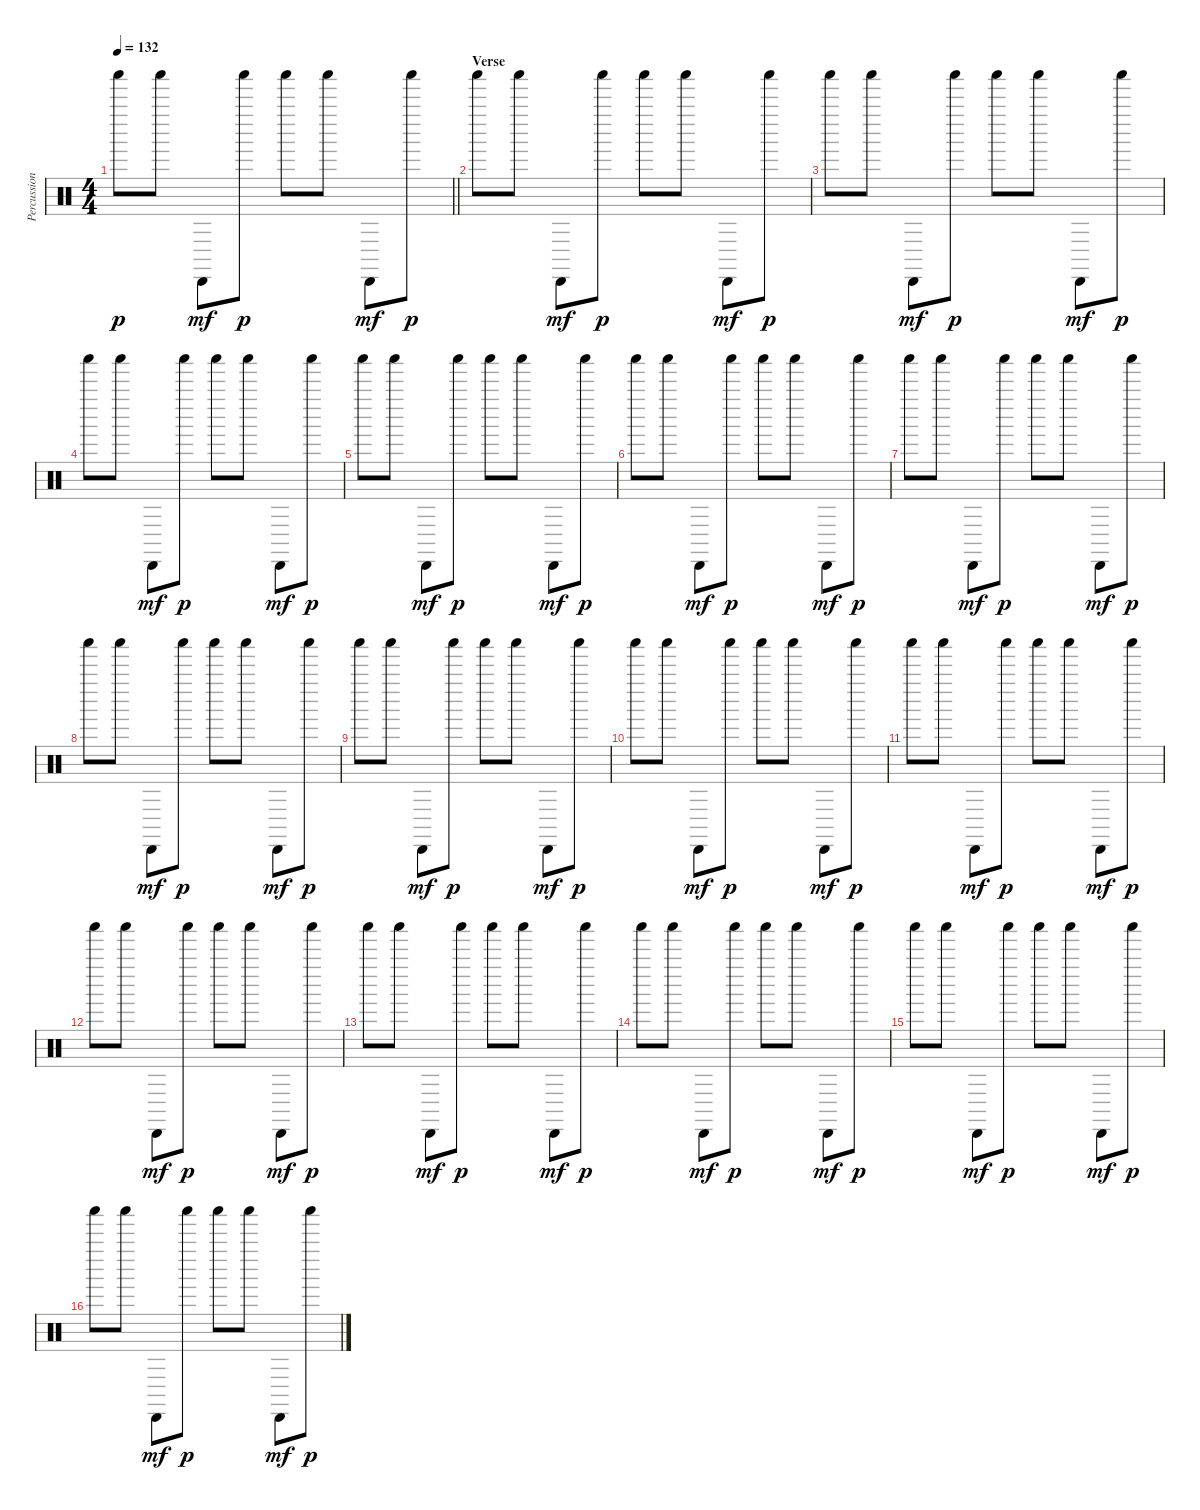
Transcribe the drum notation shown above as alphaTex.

\track ("Percussions" "Percussion") {instrument percussion}
\staff {score}
\articulation defaults
\ts (4 4)
\tempo 132
\clef neutral
\barLineRight lightlight
\ks c "Shaker (hit)".8{dy p} "Shaker (hit)".8 "Cabasa (hit)".8{dy mf} "Shaker (hit)".8{dy p} "Shaker (hit)".8 "Shaker (hit)".8 "Cabasa (hit)".8{dy mf} "Shaker (hit)".8{dy p}
|
\section ("" "Verse")
"Shaker (hit)".8 "Shaker (hit)".8 "Cabasa (hit)".8{dy mf} "Shaker (hit)".8{dy p} "Shaker (hit)".8 "Shaker (hit)".8 "Cabasa (hit)".8{dy mf} "Shaker (hit)".8{dy p} |
"Shaker (hit)".8 "Shaker (hit)".8 "Cabasa (hit)".8{dy mf} "Shaker (hit)".8{dy p} "Shaker (hit)".8 "Shaker (hit)".8 "Cabasa (hit)".8{dy mf} "Shaker (hit)".8{dy p} |
"Shaker (hit)".8 "Shaker (hit)".8 "Cabasa (hit)".8{dy mf} "Shaker (hit)".8{dy p} "Shaker (hit)".8 "Shaker (hit)".8 "Cabasa (hit)".8{dy mf} "Shaker (hit)".8{dy p} |
"Shaker (hit)".8 "Shaker (hit)".8 "Cabasa (hit)".8{dy mf} "Shaker (hit)".8{dy p} "Shaker (hit)".8 "Shaker (hit)".8 "Cabasa (hit)".8{dy mf} "Shaker (hit)".8{dy p} |
"Shaker (hit)".8 "Shaker (hit)".8 "Cabasa (hit)".8{dy mf} "Shaker (hit)".8{dy p} "Shaker (hit)".8 "Shaker (hit)".8 "Cabasa (hit)".8{dy mf} "Shaker (hit)".8{dy p} |
"Shaker (hit)".8 "Shaker (hit)".8 "Cabasa (hit)".8{dy mf} "Shaker (hit)".8{dy p} "Shaker (hit)".8 "Shaker (hit)".8 "Cabasa (hit)".8{dy mf} "Shaker (hit)".8{dy p} |
"Shaker (hit)".8 "Shaker (hit)".8 "Cabasa (hit)".8{dy mf} "Shaker (hit)".8{dy p} "Shaker (hit)".8 "Shaker (hit)".8 "Cabasa (hit)".8{dy mf} "Shaker (hit)".8{dy p} |
"Shaker (hit)".8 "Shaker (hit)".8 "Cabasa (hit)".8{dy mf} "Shaker (hit)".8{dy p} "Shaker (hit)".8 "Shaker (hit)".8 "Cabasa (hit)".8{dy mf} "Shaker (hit)".8{dy p} |
"Shaker (hit)".8 "Shaker (hit)".8 "Cabasa (hit)".8{dy mf} "Shaker (hit)".8{dy p} "Shaker (hit)".8 "Shaker (hit)".8 "Cabasa (hit)".8{dy mf} "Shaker (hit)".8{dy p} |
"Shaker (hit)".8 "Shaker (hit)".8 "Cabasa (hit)".8{dy mf} "Shaker (hit)".8{dy p} "Shaker (hit)".8 "Shaker (hit)".8 "Cabasa (hit)".8{dy mf} "Shaker (hit)".8{dy p} |
"Shaker (hit)".8 "Shaker (hit)".8 "Cabasa (hit)".8{dy mf} "Shaker (hit)".8{dy p} "Shaker (hit)".8 "Shaker (hit)".8 "Cabasa (hit)".8{dy mf} "Shaker (hit)".8{dy p} |
"Shaker (hit)".8 "Shaker (hit)".8 "Cabasa (hit)".8{dy mf} "Shaker (hit)".8{dy p} "Shaker (hit)".8 "Shaker (hit)".8 "Cabasa (hit)".8{dy mf} "Shaker (hit)".8{dy p} |
"Shaker (hit)".8 "Shaker (hit)".8 "Cabasa (hit)".8{dy mf} "Shaker (hit)".8{dy p} "Shaker (hit)".8 "Shaker (hit)".8 "Cabasa (hit)".8{dy mf} "Shaker (hit)".8{dy p} |
"Shaker (hit)".8 "Shaker (hit)".8 "Cabasa (hit)".8{dy mf} "Shaker (hit)".8{dy p} "Shaker (hit)".8 "Shaker (hit)".8 "Cabasa (hit)".8{dy mf} "Shaker (hit)".8{dy p} |
"Shaker (hit)".8 "Shaker (hit)".8 "Cabasa (hit)".8{dy mf} "Shaker (hit)".8{dy p} "Shaker (hit)".8 "Shaker (hit)".8 "Cabasa (hit)".8{dy mf} "Shaker (hit)".8{dy p}
